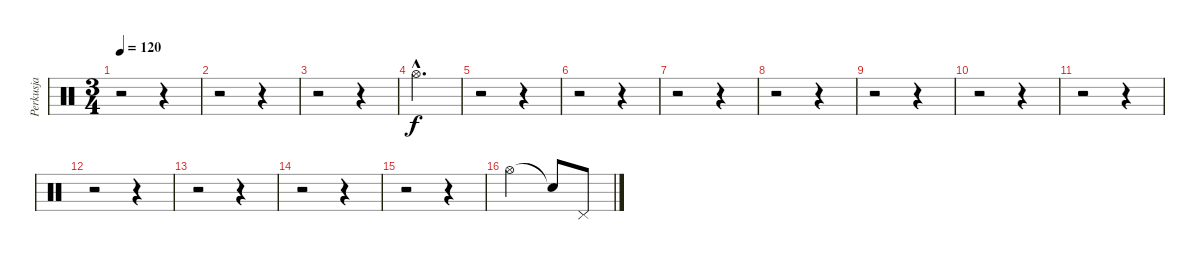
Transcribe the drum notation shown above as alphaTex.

\track ("Perkusja" "Perkusja") {instrument percussion}
\staff {score}
\articulation defaults
\ts (3 4)
\tempo 120
\clef neutral
\ks c
r.2{dy f} r.4 |
r.2 r.4 |
r.2 r.4 |
"Hi-Hat (open)"{hac}.2{d} |
r.2 r.4 |
r.2 r.4 |
r.2 r.4 |
r.2 r.4 |
r.2 r.4 |
r.2 r.4 |
r.2 r.4 |
r.2 r.4 |
r.2 r.4 |
r.2 r.4 |
r.2 r.4 |
"Hi-Hat (open)".2 "Snare (hit)"{t}.8 "Pedal Hi-Hat (hit)".8
